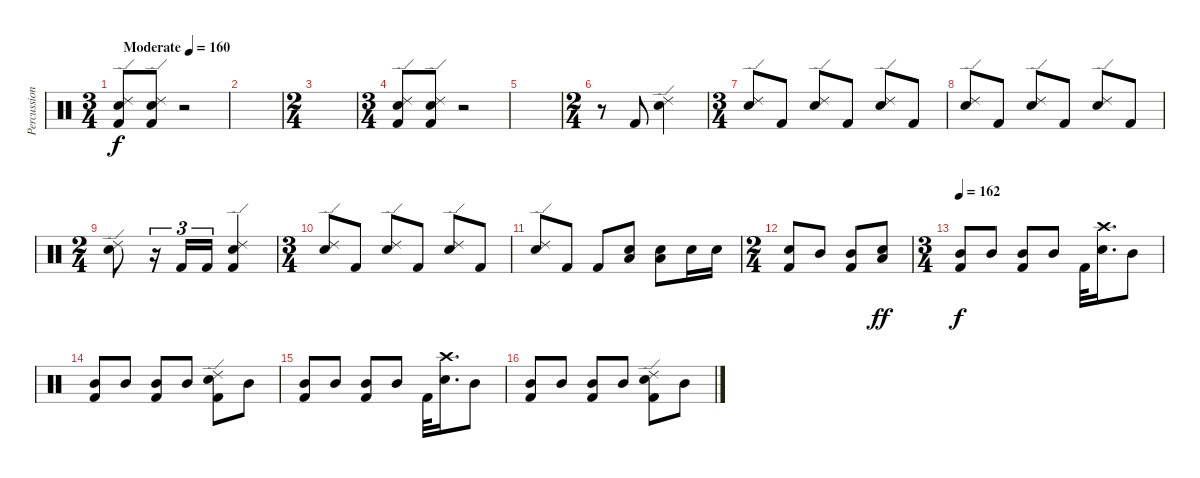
\track ("Percussion" "Percussion") {instrument percussion}
\staff {score}
\articulation defaults
\ts (3 4)
\tempo (160 "Moderate")
\clef neutral
\ks c
("Electric Snare (hit)" "Ride (edge) 2" "Kick (hit) 2").8{dy f} ("Electric Snare (hit)" "Ride (edge) 2" "Kick (hit) 2").8 r.2 |
|
\ts (2 4)
|
\ts (3 4)
("Electric Snare (hit)" "Ride (edge) 2" "Kick (hit) 2").8 ("Electric Snare (hit)" "Ride (edge) 2" "Kick (hit) 2").8 r.2 |
|
\ts (2 4)
r.8 "Kick (hit) 2".8 ("Electric Snare (hit)" "Ride (edge) 2").4 |
\ts (3 4)
("Electric Snare (hit)" "Ride (edge) 2").8 "Kick (hit) 2".8 ("Electric Snare (hit)" "Ride (edge) 2").8 "Kick (hit) 2".8 ("Electric Snare (hit)" "Ride (edge) 2").8 "Kick (hit) 2".8 |
("Electric Snare (hit)" "Ride (edge) 2").8 "Kick (hit) 2".8 ("Electric Snare (hit)" "Ride (edge) 2").8 "Kick (hit) 2".8 ("Electric Snare (hit)" "Ride (edge) 2").8 "Kick (hit) 2".8 |
\ts (2 4)
("Electric Snare (hit)" "Ride (edge) 2").8 r.16{tu (3 2)} "Kick (hit) 2".16{tu (3 2)} "Kick (hit) 2".16{tu (3 2)} ("Electric Snare (hit)" "Ride (edge) 2" "Kick (hit) 2").4 |
\ts (3 4)
("Electric Snare (hit)" "Ride (edge) 2").8 "Kick (hit) 2".8 ("Electric Snare (hit)" "Ride (edge) 2").8 "Kick (hit) 2".8 ("Electric Snare (hit)" "Ride (edge) 2").8 "Kick (hit) 2".8 |
("Electric Snare (hit)" "Ride (edge) 2").8 "Kick (hit) 2".8 "Kick (hit) 2".8 ("Electric Snare (hit)" "Low Tom (hit)").8 ("Electric Snare (hit)" "Low Tom (hit)").8 "Electric Snare (hit)".16 "Electric Snare (hit)".16 |
\ts (2 4)
("Electric Snare (hit)" "Kick (hit) 2").8 "Mid Tom (hit)".8 ("Mid Tom (hit)" "Kick (hit) 2").8 ("Electric Snare (hit)" "Low Tom (hit)").8{dy ff} |
\ts (3 4)
\tempo 162
("Mid Tom (hit)" "Kick (hit) 2").8{dy f} "Mid Tom (hit)".8 ("Mid Tom (hit)" "Kick (hit) 2").8 "Mid Tom (hit)".8 "Kick (hit) 2".32 ("Snare (hit) 2" "Crash high (hit)").16{d} "Mid Tom (hit)".8 |
("Mid Tom (hit)" "Kick (hit) 2").8 "Mid Tom (hit)".8 ("Mid Tom (hit)" "Kick (hit) 2").8 "Mid Tom (hit)".8 ("Snare (hit) 2" "Ride (edge) 2" "Kick (hit) 2").8 "Mid Tom (hit)".8 |
("Mid Tom (hit)" "Kick (hit) 2").8 "Mid Tom (hit)".8 ("Mid Tom (hit)" "Kick (hit) 2").8 "Mid Tom (hit)".8 "Kick (hit) 2".32 ("Snare (hit) 2" "Crash high (hit)").16{d} "Mid Tom (hit)".8 |
("Mid Tom (hit)" "Kick (hit) 2").8 "Mid Tom (hit)".8 ("Mid Tom (hit)" "Kick (hit) 2").8 "Mid Tom (hit)".8 ("Snare (hit) 2" "Ride (edge) 2" "Kick (hit) 2").8 "Mid Tom (hit)".8
